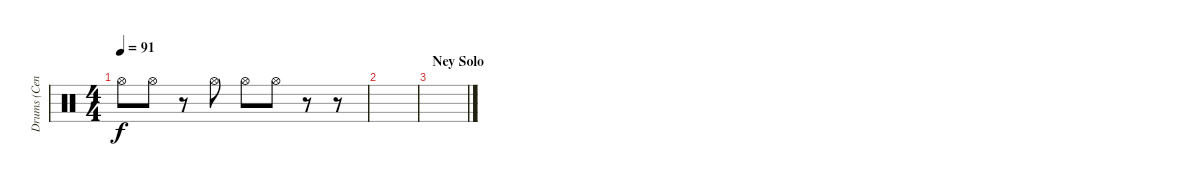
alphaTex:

\track ("Drums (Cenk)" "Drums (Cen") {instrument percussion}
\staff {score}
\articulation defaults
\ts (4 4)
\tempo 91
\clef neutral
\ks c "Hi-Hat (open)".8{dy f} "Hi-Hat (open)".8
r.8 "Hi-Hat (open)".8 "Hi-Hat (open)".8 "Hi-Hat (open)".8 r.8 r.8 |
|
\section ("" "Ney Solo")
